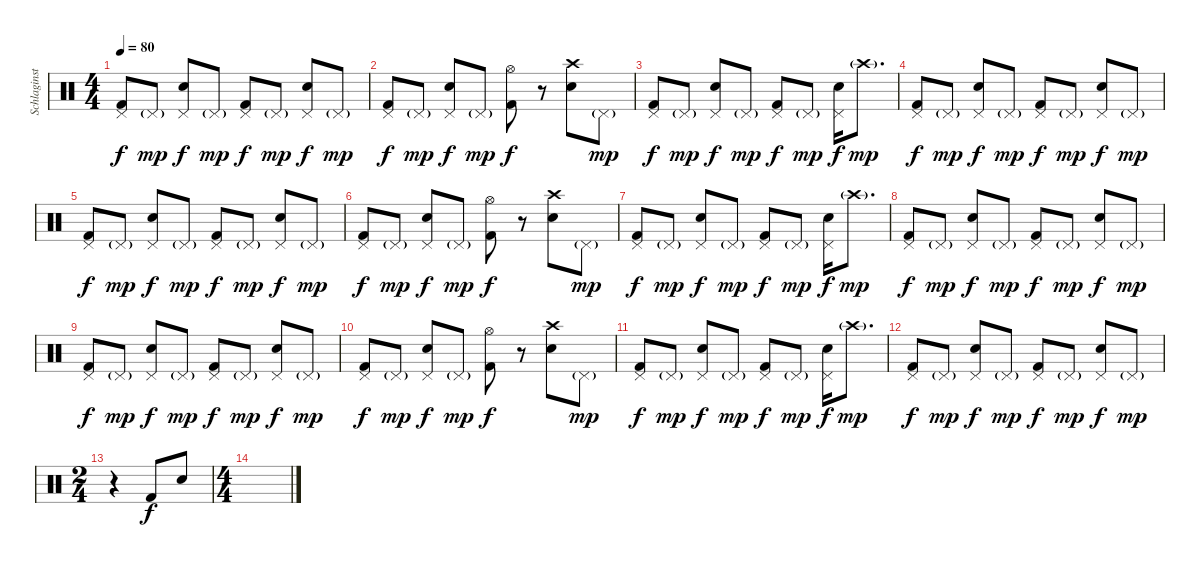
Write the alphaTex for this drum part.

\track ("Schlaginstrumente - Auswahl" "Schlaginst") {instrument percussion}
\staff {score}
\articulation defaults
\ts (4 4)
\tempo 80
\clef neutral
\ks c
("Pedal Hi-Hat (hit)" "Kick (hit) 2").8{dy f} "Pedal Hi-Hat (hit)"{g}.8{dy mp} ("Pedal Hi-Hat (hit)" "Electric Snare (hit)").8{dy f} "Pedal Hi-Hat (hit)"{g}.8{dy mp} ("Pedal Hi-Hat (hit)" "Kick (hit) 2").8{dy f} "Pedal Hi-Hat (hit)"{g}.8{dy mp} ("Pedal Hi-Hat (hit)" "Electric Snare (hit)").8{dy f} "Pedal Hi-Hat (hit)"{g}.8{dy mp} |
("Pedal Hi-Hat (hit)" "Kick (hit) 2").8{dy f} "Pedal Hi-Hat (hit)"{g}.8{dy mp} ("Pedal Hi-Hat (hit)" "Electric Snare (hit)").8{dy f} "Pedal Hi-Hat (hit)"{g}.8{dy mp} ("Hi-Hat (open)" "Kick (hit) 2").8{dy f} r.8 ("Crash high (hit)" "Electric Snare (hit)").8 "Pedal Hi-Hat (hit)"{g}.8{dy mp} |
("Pedal Hi-Hat (hit)" "Kick (hit) 2").8{dy f} "Pedal Hi-Hat (hit)"{g}.8{dy mp} ("Pedal Hi-Hat (hit)" "Electric Snare (hit)").8{dy f} "Pedal Hi-Hat (hit)"{g}.8{dy mp} ("Pedal Hi-Hat (hit)" "Kick (hit) 2").8{dy f} "Pedal Hi-Hat (hit)"{g}.8{dy mp} ("Pedal Hi-Hat (hit)" "Electric Snare (hit)").16{dy f} "Crash high (hit)"{g}.8{d dy mp} |
("Pedal Hi-Hat (hit)" "Kick (hit) 2").8{dy f} "Pedal Hi-Hat (hit)"{g}.8{dy mp} ("Pedal Hi-Hat (hit)" "Electric Snare (hit)").8{dy f} "Pedal Hi-Hat (hit)"{g}.8{dy mp} ("Pedal Hi-Hat (hit)" "Kick (hit) 2").8{dy f} "Pedal Hi-Hat (hit)"{g}.8{dy mp} ("Pedal Hi-Hat (hit)" "Electric Snare (hit)").8{dy f} "Pedal Hi-Hat (hit)"{g}.8{dy mp} |
("Pedal Hi-Hat (hit)" "Kick (hit) 2").8{dy f} "Pedal Hi-Hat (hit)"{g}.8{dy mp} ("Pedal Hi-Hat (hit)" "Electric Snare (hit)").8{dy f} "Pedal Hi-Hat (hit)"{g}.8{dy mp} ("Pedal Hi-Hat (hit)" "Kick (hit) 2").8{dy f} "Pedal Hi-Hat (hit)"{g}.8{dy mp} ("Pedal Hi-Hat (hit)" "Electric Snare (hit)").8{dy f} "Pedal Hi-Hat (hit)"{g}.8{dy mp} |
("Pedal Hi-Hat (hit)" "Kick (hit) 2").8{dy f} "Pedal Hi-Hat (hit)"{g}.8{dy mp} ("Pedal Hi-Hat (hit)" "Electric Snare (hit)").8{dy f} "Pedal Hi-Hat (hit)"{g}.8{dy mp} ("Hi-Hat (open)" "Kick (hit) 2").8{dy f} r.8 ("Crash high (hit)" "Electric Snare (hit)").8 "Pedal Hi-Hat (hit)"{g}.8{dy mp} |
("Pedal Hi-Hat (hit)" "Kick (hit) 2").8{dy f} "Pedal Hi-Hat (hit)"{g}.8{dy mp} ("Pedal Hi-Hat (hit)" "Electric Snare (hit)").8{dy f} "Pedal Hi-Hat (hit)"{g}.8{dy mp} ("Pedal Hi-Hat (hit)" "Kick (hit) 2").8{dy f} "Pedal Hi-Hat (hit)"{g}.8{dy mp} ("Pedal Hi-Hat (hit)" "Electric Snare (hit)").16{dy f} "Crash high (hit)"{g}.8{d dy mp} |
("Pedal Hi-Hat (hit)" "Kick (hit) 2").8{dy f} "Pedal Hi-Hat (hit)"{g}.8{dy mp} ("Pedal Hi-Hat (hit)" "Electric Snare (hit)").8{dy f} "Pedal Hi-Hat (hit)"{g}.8{dy mp} ("Pedal Hi-Hat (hit)" "Kick (hit) 2").8{dy f} "Pedal Hi-Hat (hit)"{g}.8{dy mp} ("Pedal Hi-Hat (hit)" "Electric Snare (hit)").8{dy f} "Pedal Hi-Hat (hit)"{g}.8{dy mp} |
("Pedal Hi-Hat (hit)" "Kick (hit) 2").8{dy f} "Pedal Hi-Hat (hit)"{g}.8{dy mp} ("Pedal Hi-Hat (hit)" "Electric Snare (hit)").8{dy f} "Pedal Hi-Hat (hit)"{g}.8{dy mp} ("Pedal Hi-Hat (hit)" "Kick (hit) 2").8{dy f} "Pedal Hi-Hat (hit)"{g}.8{dy mp} ("Pedal Hi-Hat (hit)" "Electric Snare (hit)").8{dy f} "Pedal Hi-Hat (hit)"{g}.8{dy mp} |
("Pedal Hi-Hat (hit)" "Kick (hit) 2").8{dy f} "Pedal Hi-Hat (hit)"{g}.8{dy mp} ("Pedal Hi-Hat (hit)" "Electric Snare (hit)").8{dy f} "Pedal Hi-Hat (hit)"{g}.8{dy mp} ("Hi-Hat (open)" "Kick (hit) 2").8{dy f} r.8 ("Crash high (hit)" "Electric Snare (hit)").8 "Pedal Hi-Hat (hit)"{g}.8{dy mp} |
("Pedal Hi-Hat (hit)" "Kick (hit) 2").8{dy f} "Pedal Hi-Hat (hit)"{g}.8{dy mp} ("Pedal Hi-Hat (hit)" "Electric Snare (hit)").8{dy f} "Pedal Hi-Hat (hit)"{g}.8{dy mp} ("Pedal Hi-Hat (hit)" "Kick (hit) 2").8{dy f} "Pedal Hi-Hat (hit)"{g}.8{dy mp} ("Pedal Hi-Hat (hit)" "Electric Snare (hit)").16{dy f} "Crash high (hit)"{g}.8{d dy mp} |
("Pedal Hi-Hat (hit)" "Kick (hit) 2").8{dy f} "Pedal Hi-Hat (hit)"{g}.8{dy mp} ("Pedal Hi-Hat (hit)" "Electric Snare (hit)").8{dy f} "Pedal Hi-Hat (hit)"{g}.8{dy mp} ("Pedal Hi-Hat (hit)" "Kick (hit) 2").8{dy f} "Pedal Hi-Hat (hit)"{g}.8{dy mp} ("Pedal Hi-Hat (hit)" "Electric Snare (hit)").8{dy f} "Pedal Hi-Hat (hit)"{g}.8{dy mp} |
\ts (2 4)
r.4 "Kick (hit) 2".8{dy f} "Snare (hit) 2".8 |
\ts (4 4)
